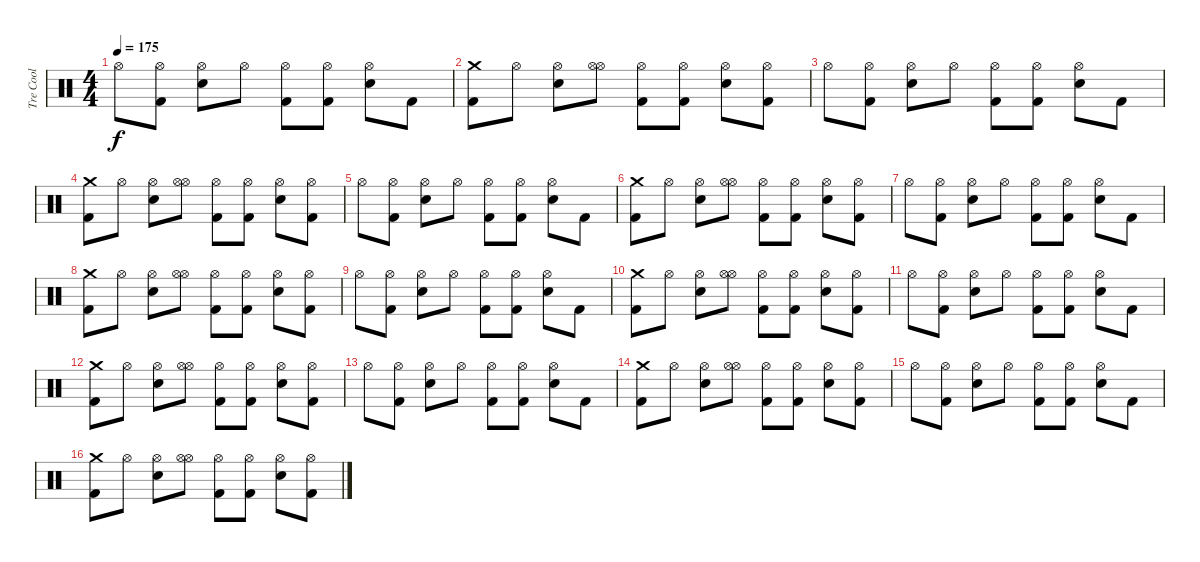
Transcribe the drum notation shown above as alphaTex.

\track ("Tre Cool" "Tre Cool") {instrument percussion}
\staff {score}
\articulation defaults
\ts (4 4)
\tempo 175
\clef neutral
\ks c "Hi-Hat (open)".8{dy f}
("Kick (hit) 2" "Hi-Hat (open)").8 ("Snare (hit) 2" "Hi-Hat (open)").8 "Hi-Hat (open)".8 ("Kick (hit) 2" "Hi-Hat (open)").8 ("Kick (hit) 2" "Hi-Hat (open)").8 ("Snare (hit) 2" "Hi-Hat (open)").8 "Kick (hit) 2".8 |
("Kick (hit) 2" "Crash medium (hit)").8 "Hi-Hat (open)".8 ("Snare (hit) 2" "Hi-Hat (open)").8 ("Hi-Hat (open)" "Hi-Hat (open)").8 ("Kick (hit) 2" "Hi-Hat (open)").8 ("Kick (hit) 2" "Hi-Hat (open)").8 ("Snare (hit) 2" "Hi-Hat (open)").8 ("Kick (hit) 2" "Hi-Hat (open)").8 |
"Hi-Hat (open)".8 ("Kick (hit) 2" "Hi-Hat (open)").8 ("Snare (hit) 2" "Hi-Hat (open)").8 "Hi-Hat (open)".8 ("Kick (hit) 2" "Hi-Hat (open)").8 ("Kick (hit) 2" "Hi-Hat (open)").8 ("Snare (hit) 2" "Hi-Hat (open)").8 "Kick (hit) 2".8 |
("Kick (hit) 2" "Crash medium (hit)").8 "Hi-Hat (open)".8 ("Snare (hit) 2" "Hi-Hat (open)").8 ("Hi-Hat (open)" "Hi-Hat (open)").8 ("Kick (hit) 2" "Hi-Hat (open)").8 ("Kick (hit) 2" "Hi-Hat (open)").8 ("Snare (hit) 2" "Hi-Hat (open)").8 ("Kick (hit) 2" "Hi-Hat (open)").8 |
"Hi-Hat (open)".8 ("Kick (hit) 2" "Hi-Hat (open)").8 ("Snare (hit) 2" "Hi-Hat (open)").8 "Hi-Hat (open)".8 ("Kick (hit) 2" "Hi-Hat (open)").8 ("Kick (hit) 2" "Hi-Hat (open)").8 ("Snare (hit) 2" "Hi-Hat (open)").8 "Kick (hit) 2".8 |
("Kick (hit) 2" "Crash medium (hit)").8 "Hi-Hat (open)".8 ("Snare (hit) 2" "Hi-Hat (open)").8 ("Hi-Hat (open)" "Hi-Hat (open)").8 ("Kick (hit) 2" "Hi-Hat (open)").8 ("Kick (hit) 2" "Hi-Hat (open)").8 ("Snare (hit) 2" "Hi-Hat (open)").8 ("Kick (hit) 2" "Hi-Hat (open)").8 |
"Hi-Hat (open)".8 ("Kick (hit) 2" "Hi-Hat (open)").8 ("Snare (hit) 2" "Hi-Hat (open)").8 "Hi-Hat (open)".8 ("Kick (hit) 2" "Hi-Hat (open)").8 ("Kick (hit) 2" "Hi-Hat (open)").8 ("Snare (hit) 2" "Hi-Hat (open)").8 "Kick (hit) 2".8 |
("Kick (hit) 2" "Crash medium (hit)").8 "Hi-Hat (open)".8 ("Snare (hit) 2" "Hi-Hat (open)").8 ("Hi-Hat (open)" "Hi-Hat (open)").8 ("Kick (hit) 2" "Hi-Hat (open)").8 ("Kick (hit) 2" "Hi-Hat (open)").8 ("Snare (hit) 2" "Hi-Hat (open)").8 ("Kick (hit) 2" "Hi-Hat (open)").8 |
"Hi-Hat (open)".8 ("Kick (hit) 2" "Hi-Hat (open)").8 ("Snare (hit) 2" "Hi-Hat (open)").8 "Hi-Hat (open)".8 ("Kick (hit) 2" "Hi-Hat (open)").8 ("Kick (hit) 2" "Hi-Hat (open)").8 ("Snare (hit) 2" "Hi-Hat (open)").8 "Kick (hit) 2".8 |
("Kick (hit) 2" "Crash medium (hit)").8 "Hi-Hat (open)".8 ("Snare (hit) 2" "Hi-Hat (open)").8 ("Hi-Hat (open)" "Hi-Hat (open)").8 ("Kick (hit) 2" "Hi-Hat (open)").8 ("Kick (hit) 2" "Hi-Hat (open)").8 ("Snare (hit) 2" "Hi-Hat (open)").8 ("Kick (hit) 2" "Hi-Hat (open)").8 |
"Hi-Hat (open)".8 ("Kick (hit) 2" "Hi-Hat (open)").8 ("Snare (hit) 2" "Hi-Hat (open)").8 "Hi-Hat (open)".8 ("Kick (hit) 2" "Hi-Hat (open)").8 ("Kick (hit) 2" "Hi-Hat (open)").8 ("Snare (hit) 2" "Hi-Hat (open)").8 "Kick (hit) 2".8 |
("Kick (hit) 2" "Crash medium (hit)").8 "Hi-Hat (open)".8 ("Snare (hit) 2" "Hi-Hat (open)").8 ("Hi-Hat (open)" "Hi-Hat (open)").8 ("Kick (hit) 2" "Hi-Hat (open)").8 ("Kick (hit) 2" "Hi-Hat (open)").8 ("Snare (hit) 2" "Hi-Hat (open)").8 ("Kick (hit) 2" "Hi-Hat (open)").8 |
"Hi-Hat (open)".8 ("Kick (hit) 2" "Hi-Hat (open)").8 ("Snare (hit) 2" "Hi-Hat (open)").8 "Hi-Hat (open)".8 ("Kick (hit) 2" "Hi-Hat (open)").8 ("Kick (hit) 2" "Hi-Hat (open)").8 ("Snare (hit) 2" "Hi-Hat (open)").8 "Kick (hit) 2".8 |
("Kick (hit) 2" "Crash medium (hit)").8 "Hi-Hat (open)".8 ("Snare (hit) 2" "Hi-Hat (open)").8 ("Hi-Hat (open)" "Hi-Hat (open)").8 ("Kick (hit) 2" "Hi-Hat (open)").8 ("Kick (hit) 2" "Hi-Hat (open)").8 ("Snare (hit) 2" "Hi-Hat (open)").8 ("Kick (hit) 2" "Hi-Hat (open)").8 |
"Hi-Hat (open)".8 ("Kick (hit) 2" "Hi-Hat (open)").8 ("Snare (hit) 2" "Hi-Hat (open)").8 "Hi-Hat (open)".8 ("Kick (hit) 2" "Hi-Hat (open)").8 ("Kick (hit) 2" "Hi-Hat (open)").8 ("Snare (hit) 2" "Hi-Hat (open)").8 "Kick (hit) 2".8 |
("Kick (hit) 2" "Crash medium (hit)").8 "Hi-Hat (open)".8 ("Snare (hit) 2" "Hi-Hat (open)").8 ("Hi-Hat (open)" "Hi-Hat (open)").8 ("Kick (hit) 2" "Hi-Hat (open)").8 ("Kick (hit) 2" "Hi-Hat (open)").8 ("Snare (hit) 2" "Hi-Hat (open)").8 ("Kick (hit) 2" "Hi-Hat (open)").8
